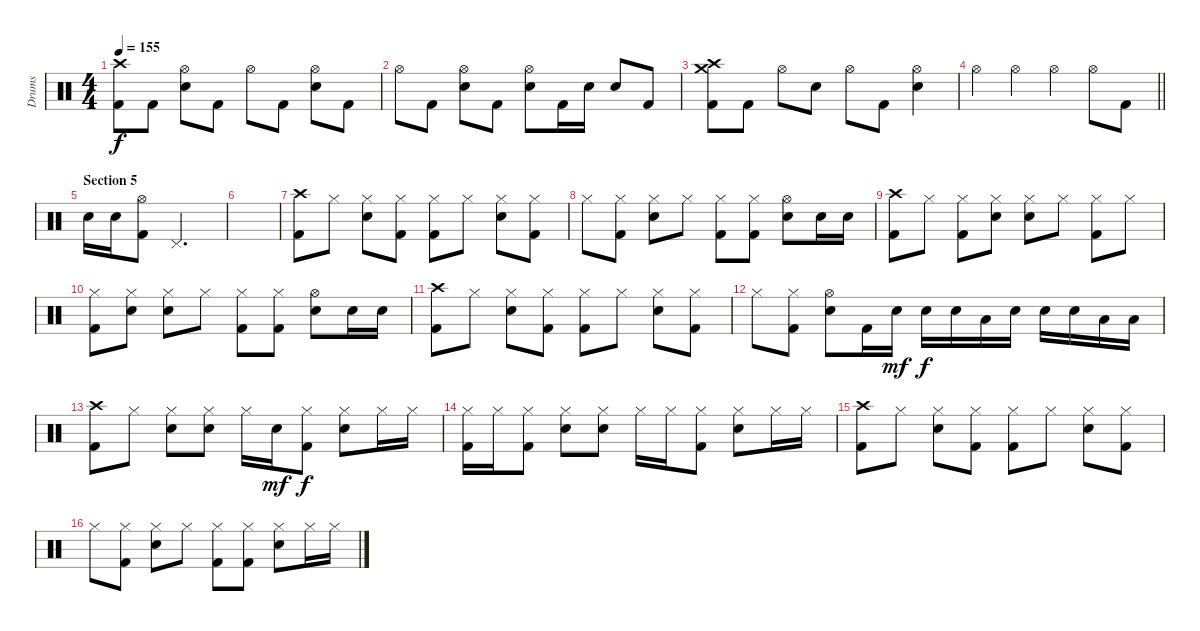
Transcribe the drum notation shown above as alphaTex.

\track ("Drums" "Drums") {instrument percussion}
\staff {score}
\articulation defaults
\ts (4 4)
\tempo 155
\clef neutral
\ks c
("Crash high (hit)" "Kick (hit) 2").8{dy f} "Kick (hit) 2".8 ("Hi-Hat (open)" "Electric Snare (hit)").8 "Kick (hit) 2".8 "Hi-Hat (open)".8 "Kick (hit) 2".8 ("Hi-Hat (open)" "Electric Snare (hit)").8 "Kick (hit) 2".8 |
"Hi-Hat (open)".8 "Kick (hit) 2".8 ("Hi-Hat (open)" "Electric Snare (hit)").8 "Kick (hit) 2".8 ("Hi-Hat (open)" "Electric Snare (hit)").8 "Kick (hit) 2".16 "Electric Snare (hit)".16 "Electric Snare (hit)".8 "Kick (hit) 2".8 |
("Crash high (hit)" "Crash medium (hit)" "Kick (hit) 2").8 "Kick (hit) 2".8 "Hi-Hat (open)".8 "Electric Snare (hit)".8 "Hi-Hat (open)".8 "Kick (hit) 2".8 ("Hi-Hat (open)" "Electric Snare (hit)").4 |
\barLineRight lightlight "Hi-Hat (open)".4 "Hi-Hat (open)".4 "Hi-Hat (open)".4 "Hi-Hat (open)".8 "Kick (hit) 2".8
|
\section ("" "Section 5")
"Electric Snare (hit)".16 "Electric Snare (hit)".16 ("Hi-Hat (open)" "Kick (hit) 2").8 "Pedal Hi-Hat (hit)".2{d} |
|
("Crash high (hit)" "Kick (hit) 2").8 "Hi-Hat (closed)".8 ("Hi-Hat (closed)" "Electric Snare (hit)").8 ("Hi-Hat (closed)" "Kick (hit) 2").8 ("Hi-Hat (closed)" "Kick (hit) 2").8 "Hi-Hat (closed)".8 ("Hi-Hat (closed)" "Electric Snare (hit)").8 ("Hi-Hat (closed)" "Kick (hit) 2").8 |
"Hi-Hat (closed)".8 ("Hi-Hat (closed)" "Kick (hit) 2").8 ("Hi-Hat (closed)" "Electric Snare (hit)").8 "Hi-Hat (closed)".8 ("Hi-Hat (closed)" "Kick (hit) 2").8 ("Hi-Hat (closed)" "Kick (hit) 2").8 ("Hi-Hat (open)" "Electric Snare (hit)").8 "Electric Snare (hit)".16 "Electric Snare (hit)".16 |
("Crash high (hit)" "Kick (hit) 2").8 "Hi-Hat (closed)".8 ("Hi-Hat (closed)" "Kick (hit) 2").8 ("Hi-Hat (closed)" "Electric Snare (hit)").8 ("Hi-Hat (closed)" "Electric Snare (hit)").8 "Hi-Hat (closed)".8 ("Hi-Hat (closed)" "Kick (hit) 2").8 "Hi-Hat (closed)".8 |
("Hi-Hat (closed)" "Kick (hit) 2").8 ("Hi-Hat (closed)" "Electric Snare (hit)").8 ("Hi-Hat (closed)" "Electric Snare (hit)").8 "Hi-Hat (closed)".8 ("Hi-Hat (closed)" "Kick (hit) 2").8 ("Hi-Hat (closed)" "Kick (hit) 2").8 ("Hi-Hat (open)" "Electric Snare (hit)").8 "Electric Snare (hit)".16 "Electric Snare (hit)".16 |
("Crash high (hit)" "Kick (hit) 2").8 "Hi-Hat (closed)".8 ("Hi-Hat (closed)" "Electric Snare (hit)").8 ("Hi-Hat (closed)" "Kick (hit) 2").8 ("Hi-Hat (closed)" "Kick (hit) 2").8 "Hi-Hat (closed)".8 ("Hi-Hat (closed)" "Electric Snare (hit)").8 ("Hi-Hat (closed)" "Kick (hit) 2").8 |
"Hi-Hat (closed)".8 ("Hi-Hat (closed)" "Kick (hit) 2").8 ("Hi-Hat (open)" "Electric Snare (hit)").8 "Kick (hit) 2".16 "Electric Snare (hit)".16{dy mf} "Electric Snare (hit)".16{dy f} "Electric Snare (hit)".16 "Low Tom (hit)".16 "Electric Snare (hit)".16 "Electric Snare (hit)".16 "Electric Snare (hit)".16 "Low Tom (hit)".16 "Low Tom (hit)".16 |
("Crash high (hit)" "Kick (hit) 2").8 "Hi-Hat (closed)".8 ("Hi-Hat (closed)" "Electric Snare (hit)").8 ("Hi-Hat (closed)" "Electric Snare (hit)").8 "Hi-Hat (closed)".16 "Electric Snare (hit)".16{dy mf} ("Hi-Hat (closed)" "Kick (hit) 2").8{dy f} ("Hi-Hat (closed)" "Electric Snare (hit)").8 "Hi-Hat (closed)".16 "Hi-Hat (closed)".16 |
("Hi-Hat (closed)" "Kick (hit) 2").16 "Hi-Hat (closed)".16 ("Hi-Hat (closed)" "Kick (hit) 2").8 ("Hi-Hat (closed)" "Electric Snare (hit)").8 ("Hi-Hat (closed)" "Electric Snare (hit)").8 "Hi-Hat (closed)".16 "Hi-Hat (closed)".16 ("Hi-Hat (closed)" "Kick (hit) 2").8 ("Hi-Hat (closed)" "Electric Snare (hit)").8 "Hi-Hat (closed)".16 "Hi-Hat (closed)".16 |
("Crash high (hit)" "Kick (hit) 2").8 "Hi-Hat (closed)".8 ("Hi-Hat (closed)" "Electric Snare (hit)").8 ("Hi-Hat (closed)" "Kick (hit) 2").8 ("Hi-Hat (closed)" "Kick (hit) 2").8 "Hi-Hat (closed)".8 ("Hi-Hat (closed)" "Electric Snare (hit)").8 ("Hi-Hat (closed)" "Kick (hit) 2").8 |
"Hi-Hat (closed)".8 ("Hi-Hat (closed)" "Kick (hit) 2").8 ("Hi-Hat (closed)" "Electric Snare (hit)").8 "Hi-Hat (closed)".8 ("Hi-Hat (closed)" "Kick (hit) 2").8 ("Hi-Hat (closed)" "Kick (hit) 2").8 ("Hi-Hat (closed)" "Electric Snare (hit)").8 "Hi-Hat (closed)".16 "Hi-Hat (closed)".16
